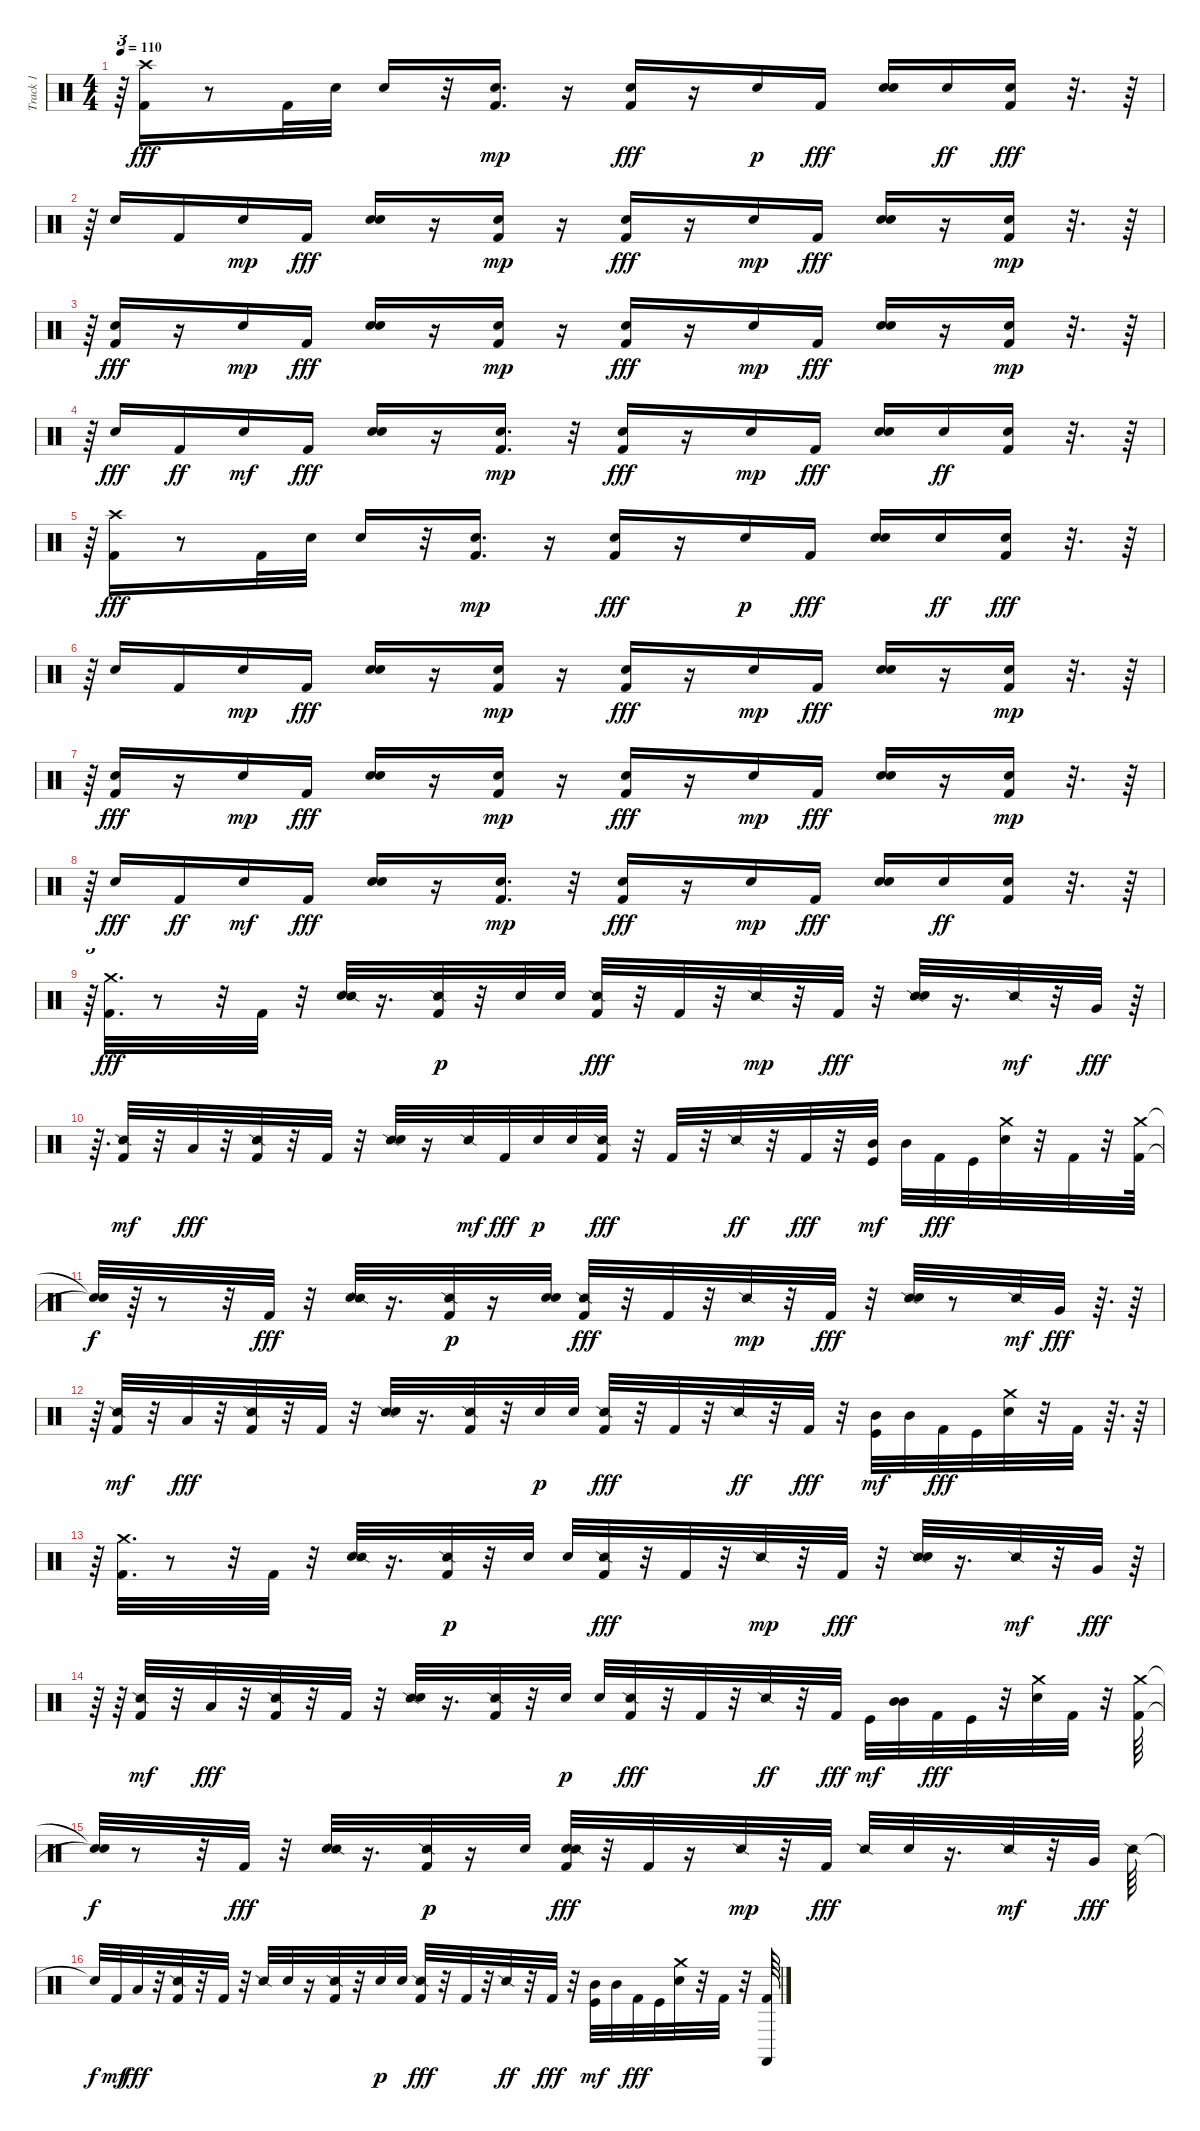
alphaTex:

\track ("Track 1" "Track 1") {mute instrument percussion}
\staff {score}
\articulation defaults
\ts (4 4)
\tempo 110
\clef neutral
\ks c
r.64{tu (3 2) dy ff} ("Kick (hit) 2" "Crash high (hit)").16{dy fff} r.8 "Kick (hit) 2".32 "Snare (hit) 2".32 "Snare (hit)".16 r.32 ("Kick (hit) 2" "Snare (hit)").16{d dy mp} r.16 ("Snare (hit)" "Kick (hit) 2").16{dy fff} r.16 "Snare (hit)".16{dy p} "Kick (hit) 2".16{dy fff} ("Snare (hit) 2" "Snare (hit)").16 "Snare (hit) 2".16{dy ff} ("Snare (hit)" "Kick (hit) 2").16{dy fff} r.32{d} r.64 |
r.64{tu (3 2)} "Snare (hit)".16 "Kick (hit) 2".16 "Snare (hit)".16{dy mp} "Kick (hit) 2".16{dy fff} ("Snare (hit) 2" "Snare (hit)").16 r.16 ("Kick (hit) 2" "Snare (hit)").16{dy mp} r.16 ("Kick (hit) 2" "Snare (hit)").16{dy fff} r.16 "Snare (hit)".16{dy mp} "Kick (hit) 2".16{dy fff} ("Snare (hit) 2" "Snare (hit)").16 r.16 ("Kick (hit) 2" "Snare (hit)").16{dy mp} r.32{d} r.64 |
r.64{tu (3 2)} ("Kick (hit) 2" "Snare (hit)").16{dy fff} r.16 "Snare (hit)".16{dy mp} "Kick (hit) 2".16{dy fff} ("Snare (hit) 2" "Snare (hit)").16 r.16 ("Kick (hit) 2" "Snare (hit)").16{dy mp} r.16 ("Kick (hit) 2" "Snare (hit)").16{dy fff} r.16 "Snare (hit)".16{dy mp} "Kick (hit) 2".16{dy fff} ("Snare (hit) 2" "Snare (hit)").16 r.16 ("Kick (hit) 2" "Snare (hit)").16{dy mp} r.32{d} r.64 |
r.64{tu (3 2)} "Snare (hit)".16{dy fff} "Kick (hit) 2".16{dy ff} "Snare (hit)".16{dy mf} "Kick (hit) 2".16{dy fff} ("Snare (hit) 2" "Snare (hit)").16 r.16 ("Kick (hit) 2" "Snare (hit)").16{d dy mp} r.32 ("Kick (hit) 2" "Snare (hit)").16{dy fff} r.16 "Snare (hit)".16{dy mp} "Kick (hit) 2".16{dy fff} ("Snare (hit) 2" "Snare (hit)").16 "Snare (hit) 2".16{dy ff} ("Snare (hit)" "Kick (hit) 2").16 r.32{d} r.64 |
r.64{tu (3 2)} ("Kick (hit) 2" "Crash high (hit)").16{dy fff} r.8 "Kick (hit) 2".32 "Snare (hit) 2".32 "Snare (hit)".16 r.32 ("Kick (hit) 2" "Snare (hit)").16{d dy mp} r.16 ("Snare (hit)" "Kick (hit) 2").16{dy fff} r.16 "Snare (hit)".16{dy p} "Kick (hit) 2".16{dy fff} ("Snare (hit) 2" "Snare (hit)").16 "Snare (hit) 2".16{dy ff} ("Snare (hit)" "Kick (hit) 2").16{dy fff} r.32{d} r.64 |
r.64{tu (3 2)} "Snare (hit)".16 "Kick (hit) 2".16 "Snare (hit)".16{dy mp} "Kick (hit) 2".16{dy fff} ("Snare (hit) 2" "Snare (hit)").16 r.16 ("Kick (hit) 2" "Snare (hit)").16{dy mp} r.16 ("Kick (hit) 2" "Snare (hit)").16{dy fff} r.16 "Snare (hit)".16{dy mp} "Kick (hit) 2".16{dy fff} ("Snare (hit) 2" "Snare (hit)").16 r.16 ("Kick (hit) 2" "Snare (hit)").16{dy mp} r.32{d} r.64 |
r.64{tu (3 2)} ("Kick (hit) 2" "Snare (hit)").16{dy fff} r.16 "Snare (hit)".16{dy mp} "Kick (hit) 2".16{dy fff} ("Snare (hit) 2" "Snare (hit)").16 r.16 ("Kick (hit) 2" "Snare (hit)").16{dy mp} r.16 ("Kick (hit) 2" "Snare (hit)").16{dy fff} r.16 "Snare (hit)".16{dy mp} "Kick (hit) 2".16{dy fff} ("Snare (hit) 2" "Snare (hit)").16 r.16 ("Kick (hit) 2" "Snare (hit)").16{dy mp} r.32{d} r.64 |
r.64{tu (3 2)} "Snare (hit)".16{dy fff} "Kick (hit) 2".16{dy ff} "Snare (hit)".16{dy mf} "Kick (hit) 2".16{dy fff} ("Snare (hit) 2" "Snare (hit)").16 r.16 ("Kick (hit) 2" "Snare (hit)").16{d dy mp} r.32 ("Kick (hit) 2" "Snare (hit)").16{dy fff} r.16 "Snare (hit)".16{dy mp} "Kick (hit) 2".16{dy fff} ("Snare (hit) 2" "Snare (hit)").16 "Snare (hit) 2".16{dy ff} ("Snare (hit)" "Kick (hit) 2").16 r.32{d} r.64 |
r.64{tu (3 2)} ("Kick (hit) 2" "Crash medium (hit)").32{d dy fff} r.8 r.32 "Kick (hit) 2".32 r.32 ("Snare (hit) 2" "Snare (side stick) 2").32 r.16{d} ("Kick (hit) 2" "Snare (side stick) 2").32{dy p} r.32 "Snare (hit) 2".32 "Snare (hit) 2".32 ("Kick (hit) 2" "Snare (side stick) 2").32{dy fff} r.32 "Kick (hit) 2".32 r.32 "Snare (side stick) 2".32{dy mp} r.32 "Kick (hit) 2".32{dy fff} r.32 ("Snare (side stick) 2" "Snare (hit) 2").32 r.16{d} "Snare (side stick) 2".32{dy mf} r.32 "Very Low Tom (hit)".32{dy fff} r.64 |
r.64{d} ("Snare (side stick) 2" "Kick (hit) 2").32{dy mf} r.32 "Low Floor Tom (hit)".32{dy fff} r.32 ("Snare (side stick) 2" "Kick (hit) 2").32 r.32 "Kick (hit) 2".32 r.32 ("Snare (side stick) 2" "Snare (hit) 2").32 r.16 "Snare (side stick) 2".32{dy mf} "Kick (hit) 2".32{dy fff} "Snare (hit) 2".32{dy p} "Snare (hit) 2".32 ("Snare (side stick) 2" "Kick (hit) 2").32{dy fff} r.32 "Kick (hit) 2".32 r.32 "Snare (side stick) 2".32{dy ff} r.32 "Kick (hit) 2".32{dy fff} r.32 ("Kick (hit)" "Mid Tom (hit)").32{dy mf} "Mid Tom (hit)".32 "Kick (hit) 2".32{dy fff} "Kick (hit)".32 ("Snare (hit) 2" "Crash medium (hit)").32 r.32 "Kick (hit) 2".32 r.32 ("Kick (hit) 2" "Crash medium (hit)").64 |
("Snare (hit)"{t} "Snare (hit)"{t}).32{dy f} r.64 r.8 r.32 "Kick (hit) 2".32{dy fff} r.32 ("Snare (hit) 2" "Snare (side stick) 2").32 r.16{d} ("Kick (hit) 2" "Snare (side stick) 2").32{dy p} r.16 ("Snare (hit) 2" "Snare (hit) 2").32 ("Kick (hit) 2" "Snare (side stick) 2").32{dy fff} r.32 "Kick (hit) 2".32 r.32 "Snare (side stick) 2".32{dy mp} r.32 "Kick (hit) 2".32{dy fff} r.32 ("Snare (side stick) 2" "Snare (hit) 2").32 r.8 "Snare (side stick) 2".32{dy mf} "Very Low Tom (hit)".32{dy fff} r.64{d} r.64 |
r.64 ("Snare (side stick) 2" "Kick (hit) 2").32{dy mf} r.32 "Low Floor Tom (hit)".32{dy fff} r.32 ("Snare (side stick) 2" "Kick (hit) 2").32 r.32 "Kick (hit) 2".32 r.32 ("Snare (side stick) 2" "Snare (hit) 2").32 r.16{d} ("Snare (side stick) 2" "Kick (hit) 2").32 r.32 "Snare (hit) 2".32{dy p} "Snare (hit) 2".32 ("Snare (side stick) 2" "Kick (hit) 2").32{dy fff} r.32 "Kick (hit) 2".32 r.32 "Snare (side stick) 2".32{dy ff} r.32 "Kick (hit) 2".32{dy fff} r.32 ("Kick (hit)" "Mid Tom (hit)").32{dy mf} "Mid Tom (hit)".32 "Kick (hit) 2".32{dy fff} "Kick (hit)".32 ("Snare (hit) 2" "Crash medium (hit)").32 r.32 "Kick (hit) 2".32 r.64{d} r.64 |
r.64 ("Kick (hit) 2" "Crash medium (hit)").32{d} r.8 r.32 "Kick (hit) 2".32 r.32 ("Snare (hit) 2" "Snare (side stick) 2").32 r.16{d} ("Kick (hit) 2" "Snare (side stick) 2").32{dy p} r.32 "Snare (hit) 2".32 "Snare (hit) 2".32 ("Kick (hit) 2" "Snare (side stick) 2").32{dy fff} r.32 "Kick (hit) 2".32 r.32 "Snare (side stick) 2".32{dy mp} r.32 "Kick (hit) 2".32{dy fff} r.32 ("Snare (side stick) 2" "Snare (hit) 2").32 r.16{d} "Snare (side stick) 2".32{dy mf} r.32 "Very Low Tom (hit)".32{dy fff} r.64 |
r.64 r.64 ("Snare (side stick) 2" "Kick (hit) 2").32{dy mf} r.32 "Low Floor Tom (hit)".32{dy fff} r.32 ("Snare (side stick) 2" "Kick (hit) 2").32 r.32 "Kick (hit) 2".32 r.32 ("Snare (side stick) 2" "Snare (hit) 2").32 r.16{d} ("Snare (side stick) 2" "Kick (hit) 2").32 r.32 "Snare (hit) 2".32{dy p} "Snare (hit) 2".32 ("Snare (side stick) 2" "Kick (hit) 2").32{dy fff} r.32 "Kick (hit) 2".32 r.32 "Snare (side stick) 2".32{dy ff} r.32 "Kick (hit) 2".32{dy fff} "Kick (hit)".32{dy mf} ("Mid Tom (hit)" "Mid Tom (hit)").32 "Kick (hit) 2".32{dy fff} "Kick (hit)".32 r.32 ("Snare (hit) 2" "Crash medium (hit)").32 "Kick (hit) 2".32 r.32 ("Kick (hit) 2" "Crash medium (hit)").64 |
("Snare (hit)"{t} "Snare (hit)"{t}).32{dy f} r.8 r.32 "Kick (hit) 2".32{dy fff} r.32 ("Snare (hit) 2" "Snare (side stick) 2").32 r.16{d} ("Kick (hit) 2" "Snare (side stick) 2").32{dy p} r.16 "Snare (hit) 2".32 ("Snare (hit) 2" "Kick (hit) 2" "Snare (side stick) 2").32{dy fff} r.32 "Kick (hit) 2".32 r.16 "Snare (side stick) 2".32{dy mp} r.32 "Kick (hit) 2".32{dy fff} "Snare (side stick) 2".32 "Snare (hit) 2".32 r.16{d} "Snare (side stick) 2".32{dy mf} r.32 "Very Low Tom (hit)".32{dy fff} "Snare (side stick) 2".64 |
"Snare (hit)"{t}.32{dy f} "Kick (hit) 2".32{dy mf} "Low Floor Tom (hit)".32{dy fff} r.32 ("Snare (side stick) 2" "Kick (hit) 2").32 r.32 "Kick (hit) 2".32 r.32 "Snare (side stick) 2".32 "Snare (hit) 2".32 r.16 ("Snare (side stick) 2" "Kick (hit) 2").32 r.32 "Snare (hit) 2".32{dy p} "Snare (hit) 2".32 ("Snare (side stick) 2" "Kick (hit) 2").32{dy fff} r.32 "Kick (hit) 2".32 r.32 "Snare (side stick) 2".32{dy ff} r.32 "Kick (hit) 2".32{dy fff} r.32 ("Kick (hit)" "Mid Tom (hit)").32{dy mf} "Mid Tom (hit)".32 "Kick (hit) 2".32{dy fff} "Kick (hit)".32 ("Snare (hit) 2" "Crash medium (hit)").32 r.32 "Kick (hit) 2".32 r.32 ("Castanets (hit)" "Kick (hit) 2").64
